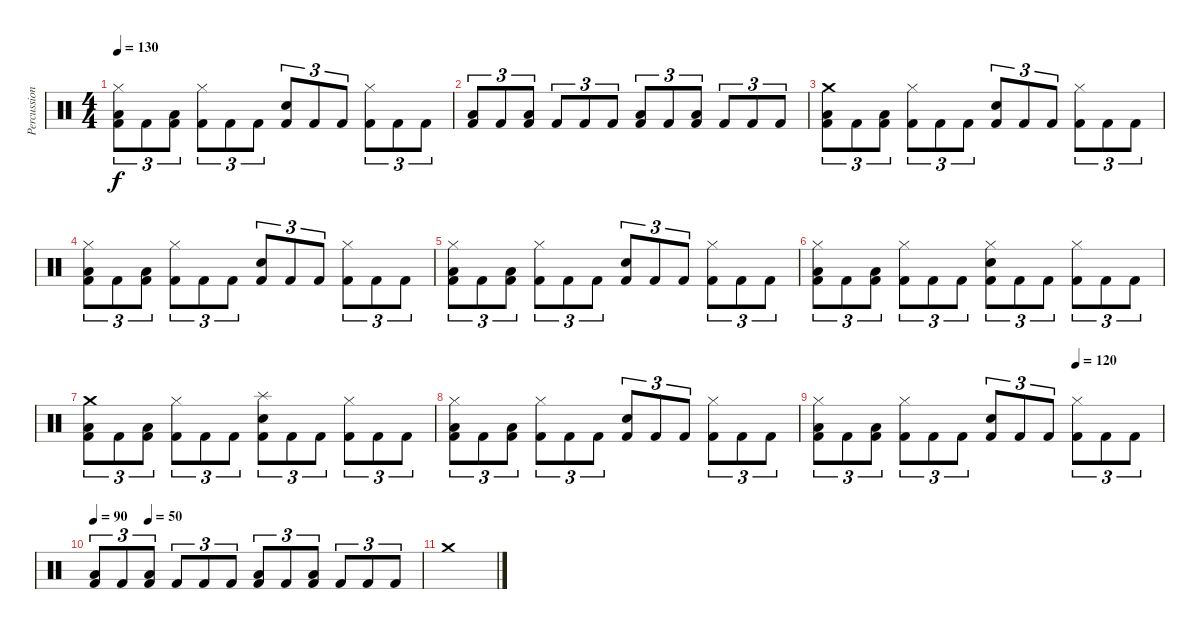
\track ("Percussions" "Percussion") {instrument percussion}
\staff {score}
\articulation defaults
\ts (4 4)
\tempo 130
\clef neutral
\ks c
("Hi-Hat (closed)" "Low Tom (hit)" "Kick (hit) 2").8{tu (3 2) dy f} "Kick (hit) 2".8{tu (3 2)} ("Low Tom (hit)" "Kick (hit) 2").8{tu (3 2)} ("Hi-Hat (closed)" "Kick (hit) 2").8{tu (3 2)} "Kick (hit) 2".8{tu (3 2)} "Kick (hit) 2".8{tu (3 2)} ("Electric Snare (hit)" "Kick (hit) 2").8{tu (3 2)} "Kick (hit) 2".8{tu (3 2)} "Kick (hit) 2".8{tu (3 2)} ("Hi-Hat (closed)" "Kick (hit) 2").8{tu (3 2)} "Kick (hit) 2".8{tu (3 2)} "Kick (hit) 2".8{tu (3 2)} |
("Low Tom (hit)" "Kick (hit) 2").8{tu (3 2)} "Kick (hit) 2".8{tu (3 2)} ("Low Tom (hit)" "Kick (hit) 2").8{tu (3 2)} "Kick (hit) 2".8{tu (3 2)} "Kick (hit) 2".8{tu (3 2)} "Kick (hit) 2".8{tu (3 2)} ("Low Tom (hit)" "Kick (hit) 2").8{tu (3 2)} "Kick (hit) 2".8{tu (3 2)} ("Low Tom (hit)" "Kick (hit) 2").8{tu (3 2)} "Kick (hit) 2".8{tu (3 2)} "Kick (hit) 2".8{tu (3 2)} "Kick (hit) 2".8{tu (3 2)} |
("Crash medium (hit)" "Low Tom (hit)" "Kick (hit) 2").8{tu (3 2)} "Kick (hit) 2".8{tu (3 2)} ("Low Tom (hit)" "Kick (hit) 2").8{tu (3 2)} ("Hi-Hat (closed)" "Kick (hit) 2").8{tu (3 2)} "Kick (hit) 2".8{tu (3 2)} "Kick (hit) 2".8{tu (3 2)} ("Electric Snare (hit)" "Kick (hit) 2").8{tu (3 2)} "Kick (hit) 2".8{tu (3 2)} "Kick (hit) 2".8{tu (3 2)} ("Hi-Hat (closed)" "Kick (hit) 2").8{tu (3 2)} "Kick (hit) 2".8{tu (3 2)} "Kick (hit) 2".8{tu (3 2)} |
("Hi-Hat (closed)" "Low Tom (hit)" "Kick (hit) 2").8{tu (3 2)} "Kick (hit) 2".8{tu (3 2)} ("Low Tom (hit)" "Kick (hit) 2").8{tu (3 2)} ("Hi-Hat (closed)" "Kick (hit) 2").8{tu (3 2)} "Kick (hit) 2".8{tu (3 2)} "Kick (hit) 2".8{tu (3 2)} ("Electric Snare (hit)" "Kick (hit) 2").8{tu (3 2)} "Kick (hit) 2".8{tu (3 2)} "Kick (hit) 2".8{tu (3 2)} ("Hi-Hat (closed)" "Kick (hit) 2").8{tu (3 2)} "Kick (hit) 2".8{tu (3 2)} "Kick (hit) 2".8{tu (3 2)} |
("Hi-Hat (closed)" "Low Tom (hit)" "Kick (hit) 2").8{tu (3 2)} "Kick (hit) 2".8{tu (3 2)} ("Low Tom (hit)" "Kick (hit) 2").8{tu (3 2)} ("Hi-Hat (closed)" "Kick (hit) 2").8{tu (3 2)} "Kick (hit) 2".8{tu (3 2)} "Kick (hit) 2".8{tu (3 2)} ("Electric Snare (hit)" "Kick (hit) 2").8{tu (3 2)} "Kick (hit) 2".8{tu (3 2)} "Kick (hit) 2".8{tu (3 2)} ("Hi-Hat (closed)" "Kick (hit) 2").8{tu (3 2)} "Kick (hit) 2".8{tu (3 2)} "Kick (hit) 2".8{tu (3 2)} |
("Hi-Hat (closed)" "Low Tom (hit)" "Kick (hit) 2").8{tu (3 2)} "Kick (hit) 2".8{tu (3 2)} ("Low Tom (hit)" "Kick (hit) 2").8{tu (3 2)} ("Hi-Hat (closed)" "Kick (hit) 2").8{tu (3 2)} "Kick (hit) 2".8{tu (3 2)} "Kick (hit) 2".8{tu (3 2)} ("Hi-Hat (closed)" "Electric Snare (hit)" "Kick (hit) 2").8{tu (3 2)} "Kick (hit) 2".8{tu (3 2)} "Kick (hit) 2".8{tu (3 2)} ("Hi-Hat (closed)" "Kick (hit) 2").8{tu (3 2)} "Kick (hit) 2".8{tu (3 2)} "Kick (hit) 2".8{tu (3 2)} |
("Crash medium (hit)" "Low Tom (hit)" "Kick (hit) 2").8{tu (3 2)} "Kick (hit) 2".8{tu (3 2)} ("Low Tom (hit)" "Kick (hit) 2").8{tu (3 2)} ("Hi-Hat (closed)" "Kick (hit) 2").8{tu (3 2)} "Kick (hit) 2".8{tu (3 2)} "Kick (hit) 2".8{tu (3 2)} ("Splash (hit)" "Electric Snare (hit)" "Kick (hit) 2").8{tu (3 2)} "Kick (hit) 2".8{tu (3 2)} "Kick (hit) 2".8{tu (3 2)} ("Hi-Hat (closed)" "Kick (hit) 2").8{tu (3 2)} "Kick (hit) 2".8{tu (3 2)} "Kick (hit) 2".8{tu (3 2)} |
("Hi-Hat (closed)" "Low Tom (hit)" "Kick (hit) 2").8{tu (3 2)} "Kick (hit) 2".8{tu (3 2)} ("Low Tom (hit)" "Kick (hit) 2").8{tu (3 2)} ("Hi-Hat (closed)" "Kick (hit) 2").8{tu (3 2)} "Kick (hit) 2".8{tu (3 2)} "Kick (hit) 2".8{tu (3 2)} ("Electric Snare (hit)" "Kick (hit) 2").8{tu (3 2)} "Kick (hit) 2".8{tu (3 2)} "Kick (hit) 2".8{tu (3 2)} ("Hi-Hat (closed)" "Kick (hit) 2").8{tu (3 2)} "Kick (hit) 2".8{tu (3 2)} "Kick (hit) 2".8{tu (3 2)} |
\tempo (120 0.75)
("Hi-Hat (closed)" "Low Tom (hit)" "Kick (hit) 2").8{tu (3 2)} "Kick (hit) 2".8{tu (3 2)} ("Low Tom (hit)" "Kick (hit) 2").8{tu (3 2)} ("Hi-Hat (closed)" "Kick (hit) 2").8{tu (3 2)} "Kick (hit) 2".8{tu (3 2)} "Kick (hit) 2".8{tu (3 2)} ("Electric Snare (hit)" "Kick (hit) 2").8{tu (3 2)} "Kick (hit) 2".8{tu (3 2)} "Kick (hit) 2".8{tu (3 2)} ("Hi-Hat (closed)" "Kick (hit) 2").8{tu (3 2)} "Kick (hit) 2".8{tu (3 2)} "Kick (hit) 2".8{tu (3 2)} |
\tempo 90
\tempo (50 0.16666666666666666)
("Low Tom (hit)" "Kick (hit) 2").8{tu (3 2)} "Kick (hit) 2".8{tu (3 2)} ("Low Tom (hit)" "Kick (hit) 2").8{tu (3 2)} "Kick (hit) 2".8{tu (3 2)} "Kick (hit) 2".8{tu (3 2)} "Kick (hit) 2".8{tu (3 2)} ("Low Tom (hit)" "Kick (hit) 2").8{tu (3 2)} "Kick (hit) 2".8{tu (3 2)} ("Low Tom (hit)" "Kick (hit) 2").8{tu (3 2)} "Kick (hit) 2".8{tu (3 2)} "Kick (hit) 2".8{tu (3 2)} "Kick (hit) 2".8{tu (3 2)} |
"Crash medium (hit)".1
